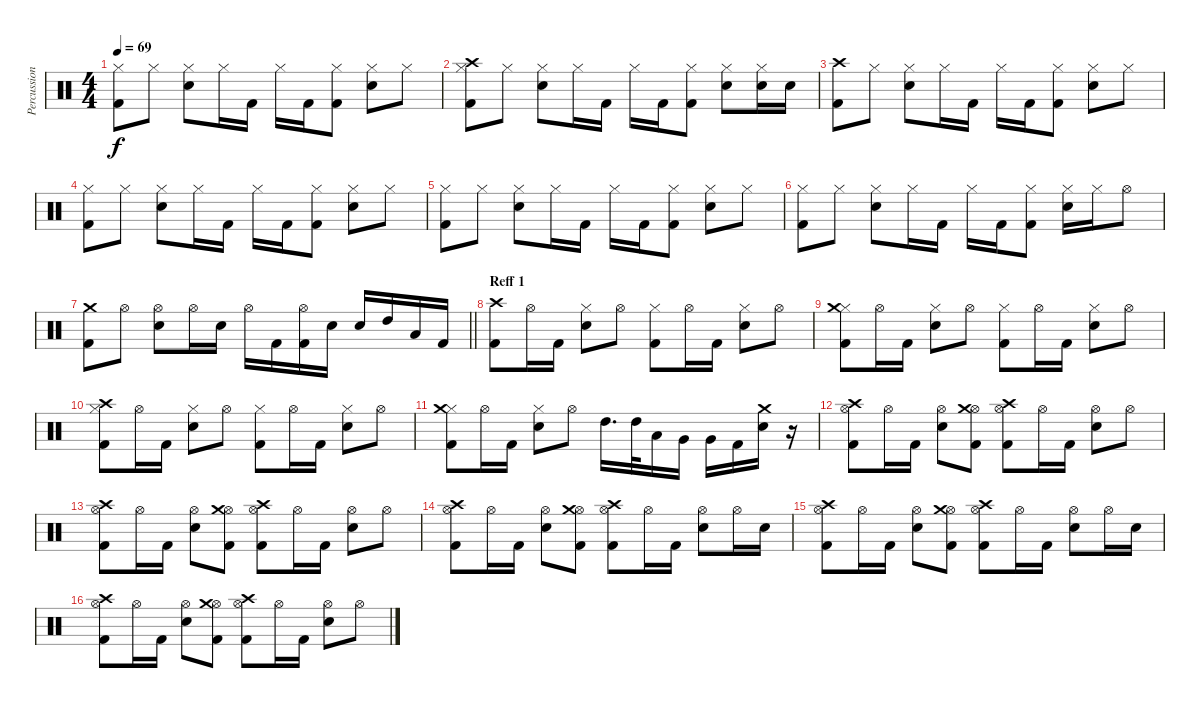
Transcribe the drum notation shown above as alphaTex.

\track ("Percussion" "Percussion") {instrument percussion}
\staff {score}
\articulation defaults
\ts (4 4)
\tempo 69
\clef neutral
\ks c
("Hi-Hat (closed)" "Kick (hit) 2").8{dy f} "Hi-Hat (closed)".8 ("Hi-Hat (closed)" "Electric Snare (hit)").8 "Hi-Hat (closed)".16 "Kick (hit) 2".16 "Hi-Hat (closed)".16 "Kick (hit) 2".16 ("Hi-Hat (closed)" "Kick (hit) 2").8 ("Hi-Hat (closed)" "Electric Snare (hit)").8 "Hi-Hat (closed)".8 |
("Hi-Hat (closed)" "Crash high (hit)" "Kick (hit) 2").8 "Hi-Hat (closed)".8 ("Hi-Hat (closed)" "Electric Snare (hit)").8 "Hi-Hat (closed)".16 "Kick (hit) 2".16 "Hi-Hat (closed)".16 "Kick (hit) 2".16 ("Hi-Hat (closed)" "Kick (hit) 2").8 ("Hi-Hat (closed)" "Electric Snare (hit)").8 ("Hi-Hat (closed)" "Electric Snare (hit)").16 "Electric Snare (hit)".16 |
("Crash high (hit)" "Kick (hit) 2").8 "Hi-Hat (closed)".8 ("Hi-Hat (closed)" "Electric Snare (hit)").8 "Hi-Hat (closed)".16 "Kick (hit) 2".16 "Hi-Hat (closed)".16 "Kick (hit) 2".16 ("Hi-Hat (closed)" "Kick (hit) 2").8 ("Hi-Hat (closed)" "Electric Snare (hit)").8 "Hi-Hat (closed)".8 |
("Hi-Hat (closed)" "Kick (hit) 2").8 "Hi-Hat (closed)".8 ("Hi-Hat (closed)" "Electric Snare (hit)").8 "Hi-Hat (closed)".16 "Kick (hit) 2".16 "Hi-Hat (closed)".16 "Kick (hit) 2".16 ("Hi-Hat (closed)" "Kick (hit) 2").8 ("Hi-Hat (closed)" "Electric Snare (hit)").8 "Hi-Hat (closed)".8 |
("Hi-Hat (closed)" "Kick (hit) 2").8 "Hi-Hat (closed)".8 ("Hi-Hat (closed)" "Electric Snare (hit)").8 "Hi-Hat (closed)".16 "Kick (hit) 2".16 "Hi-Hat (closed)".16 "Kick (hit) 2".16 ("Hi-Hat (closed)" "Kick (hit) 2").8 ("Hi-Hat (closed)" "Electric Snare (hit)").8 "Hi-Hat (closed)".8 |
("Hi-Hat (closed)" "Kick (hit) 2").8 "Hi-Hat (closed)".8 ("Hi-Hat (closed)" "Electric Snare (hit)").8 "Hi-Hat (closed)".16 "Kick (hit) 2".16 "Hi-Hat (closed)".16 "Kick (hit) 2".16 ("Hi-Hat (closed)" "Kick (hit) 2").8 ("Hi-Hat (closed)" "Electric Snare (hit)").16 "Hi-Hat (closed)".16 "Hi-Hat (open)".8 |
\barLineRight lightlight
("Crash medium (hit)" "Kick (hit) 2").8 "Hi-Hat (open)".8 ("Hi-Hat (open)" "Electric Snare (hit)").8 "Hi-Hat (open)".16 "Electric Snare (hit)".16 "Hi-Hat (open)".16 "Kick (hit) 2".16 ("Hi-Hat (open)" "Kick (hit) 2").16 "Electric Snare (hit)".16 "Electric Snare (hit)".16 "High Tom (hit)".16 "Low Tom (hit)".16 "Kick (hit) 2".16 |
\section ("" "Reff 1")
("Crash high (hit)" "Kick (hit) 2").8 "Hi-Hat (open)".16 "Kick (hit) 2".16 ("Hi-Hat (closed)" "Electric Snare (hit)").8 "Hi-Hat (open)".8 ("Hi-Hat (closed)" "Kick (hit) 2").8 "Hi-Hat (open)".16 "Kick (hit) 2".16 ("Hi-Hat (closed)" "Electric Snare (hit)").8 "Hi-Hat (open)".8 |
("Hi-Hat (closed)" "Crash medium (hit)" "Kick (hit) 2").8 "Hi-Hat (open)".16 "Kick (hit) 2".16 ("Hi-Hat (closed)" "Electric Snare (hit)").8 "Hi-Hat (open)".8 ("Hi-Hat (closed)" "Kick (hit) 2").8 "Hi-Hat (open)".16 "Kick (hit) 2".16 ("Hi-Hat (closed)" "Electric Snare (hit)").8 "Hi-Hat (open)".8 |
("Hi-Hat (closed)" "Crash high (hit)" "Kick (hit) 2").8 "Hi-Hat (open)".16 "Kick (hit) 2".16 ("Hi-Hat (closed)" "Electric Snare (hit)").8 "Hi-Hat (open)".8 ("Hi-Hat (closed)" "Kick (hit) 2").8 "Hi-Hat (open)".16 "Kick (hit) 2".16 ("Hi-Hat (closed)" "Electric Snare (hit)").8 "Hi-Hat (open)".8 |
("Hi-Hat (closed)" "Crash medium (hit)" "Kick (hit) 2").8 "Hi-Hat (open)".16 "Kick (hit) 2".16 ("Hi-Hat (closed)" "Electric Snare (hit)").8 "Hi-Hat (open)".8 "High Tom (hit)".16{d} "High Tom (hit)".32 "Low Tom (hit)".16 "Very Low Tom (hit)".16 "Very Low Tom (hit)".16 "Kick (hit) 2".16 ("Crash medium (hit)" "Electric Snare (hit)").16 r.16 |
("Hi-Hat (open)" "Crash high (hit)" "Kick (hit) 2").8 "Hi-Hat (open)".16 "Kick (hit) 2".16 ("Hi-Hat (open)" "Electric Snare (hit)").8 ("Hi-Hat (open)" "Crash medium (hit)" "Kick (hit) 2").8 ("Hi-Hat (open)" "Crash high (hit)" "Kick (hit) 2").8 "Hi-Hat (open)".16 "Kick (hit) 2".16 ("Hi-Hat (open)" "Electric Snare (hit)").8 "Hi-Hat (open)".8 |
("Hi-Hat (open)" "Crash high (hit)" "Kick (hit) 2").8 "Hi-Hat (open)".16 "Kick (hit) 2".16 ("Hi-Hat (open)" "Electric Snare (hit)").8 ("Hi-Hat (open)" "Crash medium (hit)" "Kick (hit) 2").8 ("Hi-Hat (open)" "Crash high (hit)" "Kick (hit) 2").8 "Hi-Hat (open)".16 "Kick (hit) 2".16 ("Hi-Hat (open)" "Electric Snare (hit)").8 "Hi-Hat (open)".8 |
("Hi-Hat (open)" "Crash high (hit)" "Kick (hit) 2").8 "Hi-Hat (open)".16 "Kick (hit) 2".16 ("Hi-Hat (open)" "Electric Snare (hit)").8 ("Hi-Hat (open)" "Crash medium (hit)" "Kick (hit) 2").8 ("Hi-Hat (open)" "Crash high (hit)" "Kick (hit) 2").8 "Hi-Hat (open)".16 "Kick (hit) 2".16 ("Hi-Hat (open)" "Electric Snare (hit)").8 "Hi-Hat (open)".16 "Electric Snare (hit)".16 |
("Hi-Hat (open)" "Crash high (hit)" "Kick (hit) 2").8 "Hi-Hat (open)".16 "Kick (hit) 2".16 ("Hi-Hat (open)" "Electric Snare (hit)").8 ("Hi-Hat (open)" "Crash medium (hit)" "Kick (hit) 2").8 ("Hi-Hat (open)" "Crash high (hit)" "Kick (hit) 2").8 "Hi-Hat (open)".16 "Kick (hit) 2".16 ("Hi-Hat (open)" "Electric Snare (hit)").8 "Hi-Hat (open)".16 "Electric Snare (hit)".16 |
("Hi-Hat (open)" "Crash high (hit)" "Kick (hit) 2").8 "Hi-Hat (open)".16 "Kick (hit) 2".16 ("Hi-Hat (open)" "Electric Snare (hit)").8 ("Hi-Hat (open)" "Crash medium (hit)" "Kick (hit) 2").8 ("Hi-Hat (open)" "Crash high (hit)" "Kick (hit) 2").8 "Hi-Hat (open)".16 "Kick (hit) 2".16 ("Hi-Hat (open)" "Electric Snare (hit)").8 "Hi-Hat (open)".8
